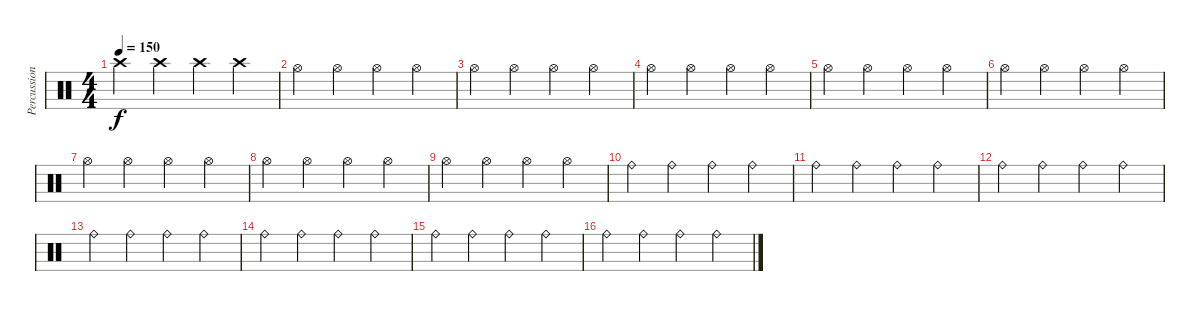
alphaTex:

\track ("Percussion Cymbals" "Percussion") {instrument percussion}
\staff {score}
\articulation defaults
\ts (4 4)
\tempo 150
\clef neutral
\ks c "Crash high (hit)".4{dy f} "Crash high (hit)".4 "Crash high (hit)".4 "Crash high (hit)".4
|
"Hi-Hat (open)".4 "Hi-Hat (open)".4 "Hi-Hat (open)".4 "Hi-Hat (open)".4 |
"Hi-Hat (open)".4 "Hi-Hat (open)".4 "Hi-Hat (open)".4 "Hi-Hat (open)".4 |
"Hi-Hat (open)".4 "Hi-Hat (open)".4 "Hi-Hat (open)".4 "Hi-Hat (open)".4 |
"Hi-Hat (open)".4 "Hi-Hat (open)".4 "Hi-Hat (open)".4 "Hi-Hat (open)".4 |
"Hi-Hat (open)".4 "Hi-Hat (open)".4 "Hi-Hat (open)".4 "Hi-Hat (open)".4 |
"Hi-Hat (open)".4 "Hi-Hat (open)".4 "Hi-Hat (open)".4 "Hi-Hat (open)".4 |
"Hi-Hat (open)".4 "Hi-Hat (open)".4 "Hi-Hat (open)".4 "Hi-Hat (open)".4 |
"Hi-Hat (open)".4 "Hi-Hat (open)".4 "Hi-Hat (open)".4 "Hi-Hat (open)".4 |
"Ride (bell)".4 "Ride (bell)".4 "Ride (bell)".4 "Ride (bell)".4 |
"Ride (bell)".4 "Ride (bell)".4 "Ride (bell)".4 "Ride (bell)".4 |
"Ride (bell)".4 "Ride (bell)".4 "Ride (bell)".4 "Ride (bell)".4 |
"Ride (bell)".4 "Ride (bell)".4 "Ride (bell)".4 "Ride (bell)".4 |
"Ride (bell)".4 "Ride (bell)".4 "Ride (bell)".4 "Ride (bell)".4 |
"Ride (bell)".4 "Ride (bell)".4 "Ride (bell)".4 "Ride (bell)".4 |
"Ride (bell)".4 "Ride (bell)".4 "Ride (bell)".4 "Ride (bell)".4
